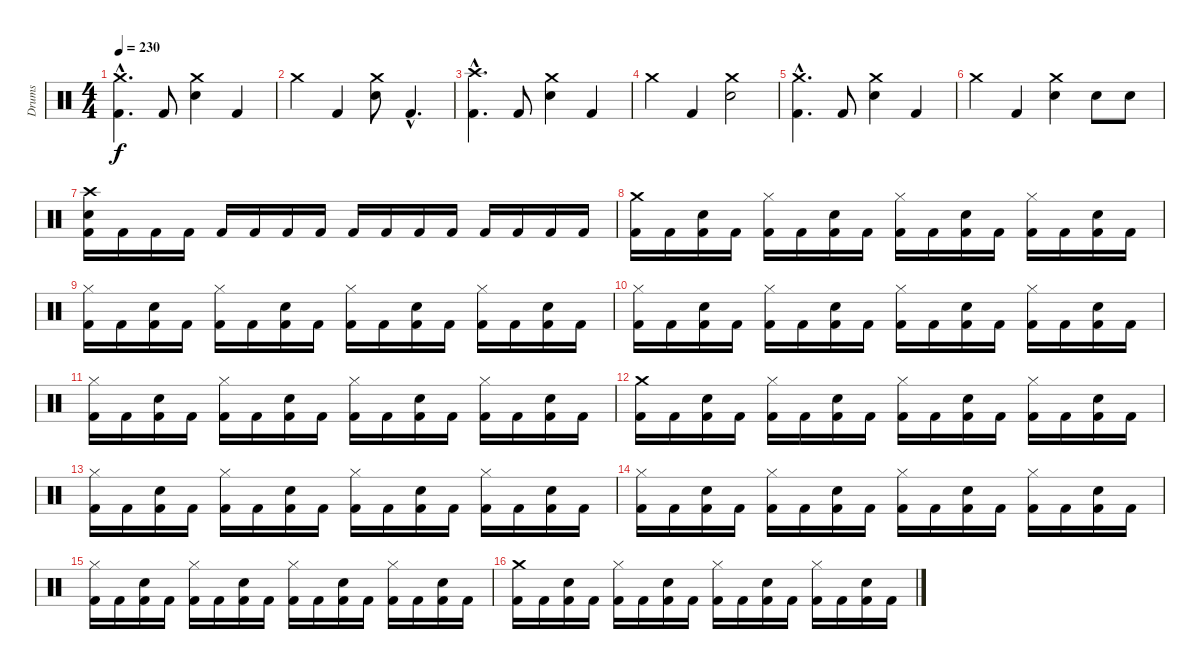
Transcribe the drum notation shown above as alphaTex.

\track ("Drums" "Drums") {instrument percussion}
\staff {score}
\articulation defaults
\ts (4 4)
\tempo 230
\clef neutral
\ks c
("Crash medium (hit)"{hac} "Kick (hit) 2"{hac}).4{d dy f} "Kick (hit) 2".8 ("Crash medium (hit)" "Electric Snare (hit)").4 "Kick (hit) 2".4 |
"Crash medium (hit)".4 "Kick (hit) 2".4 ("Crash medium (hit)" "Electric Snare (hit)").8 "Kick (hit) 2"{hac}.4{d} |
("Crash high (hit)"{hac} "Kick (hit) 2"{hac}).4{d} "Kick (hit) 2".8 ("Crash medium (hit)" "Electric Snare (hit)").4 "Kick (hit) 2".4 |
"Crash medium (hit)".4 "Kick (hit) 2".4 ("Crash medium (hit)" "Electric Snare (hit)").2 |
("Crash medium (hit)"{hac} "Kick (hit) 2"{hac}).4{d} "Kick (hit) 2".8 ("Crash medium (hit)" "Electric Snare (hit)").4 "Kick (hit) 2".4 |
"Crash medium (hit)".4 "Kick (hit) 2".4 ("Crash medium (hit)" "Electric Snare (hit)").4 "Electric Snare (hit)".8 "Electric Snare (hit)".8 |
("Crash high (hit)" "Electric Snare (hit)" "Kick (hit) 2").16 "Kick (hit) 2".16 "Kick (hit) 2".16 "Kick (hit) 2".16 "Kick (hit) 2".16 "Kick (hit) 2".16 "Kick (hit) 2".16 "Kick (hit) 2".16 "Kick (hit) 2".16 "Kick (hit) 2".16 "Kick (hit) 2".16 "Kick (hit) 2".16 "Kick (hit) 2".16 "Kick (hit) 2".16 "Kick (hit) 2".16 "Kick (hit) 2".16 |
("Crash medium (hit)" "Kick (hit) 2").16 "Kick (hit) 2".16 ("Electric Snare (hit)" "Kick (hit) 2").16 "Kick (hit) 2".16 ("Hi-Hat (closed)" "Kick (hit) 2").16 "Kick (hit) 2".16 ("Electric Snare (hit)" "Kick (hit) 2").16 "Kick (hit) 2".16 ("Hi-Hat (closed)" "Kick (hit) 2").16 "Kick (hit) 2".16 ("Electric Snare (hit)" "Kick (hit) 2").16 "Kick (hit) 2".16 ("Hi-Hat (closed)" "Kick (hit) 2").16 "Kick (hit) 2".16 ("Electric Snare (hit)" "Kick (hit) 2").16 "Kick (hit) 2".16 |
("Hi-Hat (closed)" "Kick (hit) 2").16 "Kick (hit) 2".16 ("Electric Snare (hit)" "Kick (hit) 2").16 "Kick (hit) 2".16 ("Hi-Hat (closed)" "Kick (hit) 2").16 "Kick (hit) 2".16 ("Electric Snare (hit)" "Kick (hit) 2").16 "Kick (hit) 2".16 ("Hi-Hat (closed)" "Kick (hit) 2").16 "Kick (hit) 2".16 ("Electric Snare (hit)" "Kick (hit) 2").16 "Kick (hit) 2".16 ("Hi-Hat (closed)" "Kick (hit) 2").16 "Kick (hit) 2".16 ("Electric Snare (hit)" "Kick (hit) 2").16 "Kick (hit) 2".16 |
("Hi-Hat (closed)" "Kick (hit) 2").16 "Kick (hit) 2".16 ("Electric Snare (hit)" "Kick (hit) 2").16 "Kick (hit) 2".16 ("Hi-Hat (closed)" "Kick (hit) 2").16 "Kick (hit) 2".16 ("Electric Snare (hit)" "Kick (hit) 2").16 "Kick (hit) 2".16 ("Hi-Hat (closed)" "Kick (hit) 2").16 "Kick (hit) 2".16 ("Electric Snare (hit)" "Kick (hit) 2").16 "Kick (hit) 2".16 ("Hi-Hat (closed)" "Kick (hit) 2").16 "Kick (hit) 2".16 ("Electric Snare (hit)" "Kick (hit) 2").16 "Kick (hit) 2".16 |
("Hi-Hat (closed)" "Kick (hit) 2").16 "Kick (hit) 2".16 ("Electric Snare (hit)" "Kick (hit) 2").16 "Kick (hit) 2".16 ("Hi-Hat (closed)" "Kick (hit) 2").16 "Kick (hit) 2".16 ("Electric Snare (hit)" "Kick (hit) 2").16 "Kick (hit) 2".16 ("Hi-Hat (closed)" "Kick (hit) 2").16 "Kick (hit) 2".16 ("Electric Snare (hit)" "Kick (hit) 2").16 "Kick (hit) 2".16 ("Hi-Hat (closed)" "Kick (hit) 2").16 "Kick (hit) 2".16 ("Electric Snare (hit)" "Kick (hit) 2").16 "Kick (hit) 2".16 |
("Crash medium (hit)" "Kick (hit) 2").16 "Kick (hit) 2".16 ("Electric Snare (hit)" "Kick (hit) 2").16 "Kick (hit) 2".16 ("Hi-Hat (closed)" "Kick (hit) 2").16 "Kick (hit) 2".16 ("Electric Snare (hit)" "Kick (hit) 2").16 "Kick (hit) 2".16 ("Hi-Hat (closed)" "Kick (hit) 2").16 "Kick (hit) 2".16 ("Electric Snare (hit)" "Kick (hit) 2").16 "Kick (hit) 2".16 ("Hi-Hat (closed)" "Kick (hit) 2").16 "Kick (hit) 2".16 ("Electric Snare (hit)" "Kick (hit) 2").16 "Kick (hit) 2".16 |
("Hi-Hat (closed)" "Kick (hit) 2").16 "Kick (hit) 2".16 ("Electric Snare (hit)" "Kick (hit) 2").16 "Kick (hit) 2".16 ("Hi-Hat (closed)" "Kick (hit) 2").16 "Kick (hit) 2".16 ("Electric Snare (hit)" "Kick (hit) 2").16 "Kick (hit) 2".16 ("Hi-Hat (closed)" "Kick (hit) 2").16 "Kick (hit) 2".16 ("Electric Snare (hit)" "Kick (hit) 2").16 "Kick (hit) 2".16 ("Hi-Hat (closed)" "Kick (hit) 2").16 "Kick (hit) 2".16 ("Electric Snare (hit)" "Kick (hit) 2").16 "Kick (hit) 2".16 |
("Hi-Hat (closed)" "Kick (hit) 2").16 "Kick (hit) 2".16 ("Electric Snare (hit)" "Kick (hit) 2").16 "Kick (hit) 2".16 ("Hi-Hat (closed)" "Kick (hit) 2").16 "Kick (hit) 2".16 ("Electric Snare (hit)" "Kick (hit) 2").16 "Kick (hit) 2".16 ("Hi-Hat (closed)" "Kick (hit) 2").16 "Kick (hit) 2".16 ("Electric Snare (hit)" "Kick (hit) 2").16 "Kick (hit) 2".16 ("Hi-Hat (closed)" "Kick (hit) 2").16 "Kick (hit) 2".16 ("Electric Snare (hit)" "Kick (hit) 2").16 "Kick (hit) 2".16 |
("Hi-Hat (closed)" "Kick (hit) 2").16 "Kick (hit) 2".16 ("Electric Snare (hit)" "Kick (hit) 2").16 "Kick (hit) 2".16 ("Hi-Hat (closed)" "Kick (hit) 2").16 "Kick (hit) 2".16 ("Electric Snare (hit)" "Kick (hit) 2").16 "Kick (hit) 2".16 ("Hi-Hat (closed)" "Kick (hit) 2").16 "Kick (hit) 2".16 ("Electric Snare (hit)" "Kick (hit) 2").16 "Kick (hit) 2".16 ("Hi-Hat (closed)" "Kick (hit) 2").16 "Kick (hit) 2".16 ("Electric Snare (hit)" "Kick (hit) 2").16 "Kick (hit) 2".16 |
("Crash medium (hit)" "Kick (hit) 2").16 "Kick (hit) 2".16 ("Electric Snare (hit)" "Kick (hit) 2").16 "Kick (hit) 2".16 ("Hi-Hat (closed)" "Kick (hit) 2").16 "Kick (hit) 2".16 ("Electric Snare (hit)" "Kick (hit) 2").16 "Kick (hit) 2".16 ("Hi-Hat (closed)" "Kick (hit) 2").16 "Kick (hit) 2".16 ("Electric Snare (hit)" "Kick (hit) 2").16 "Kick (hit) 2".16 ("Hi-Hat (closed)" "Kick (hit) 2").16 "Kick (hit) 2".16 ("Electric Snare (hit)" "Kick (hit) 2").16 "Kick (hit) 2".16
